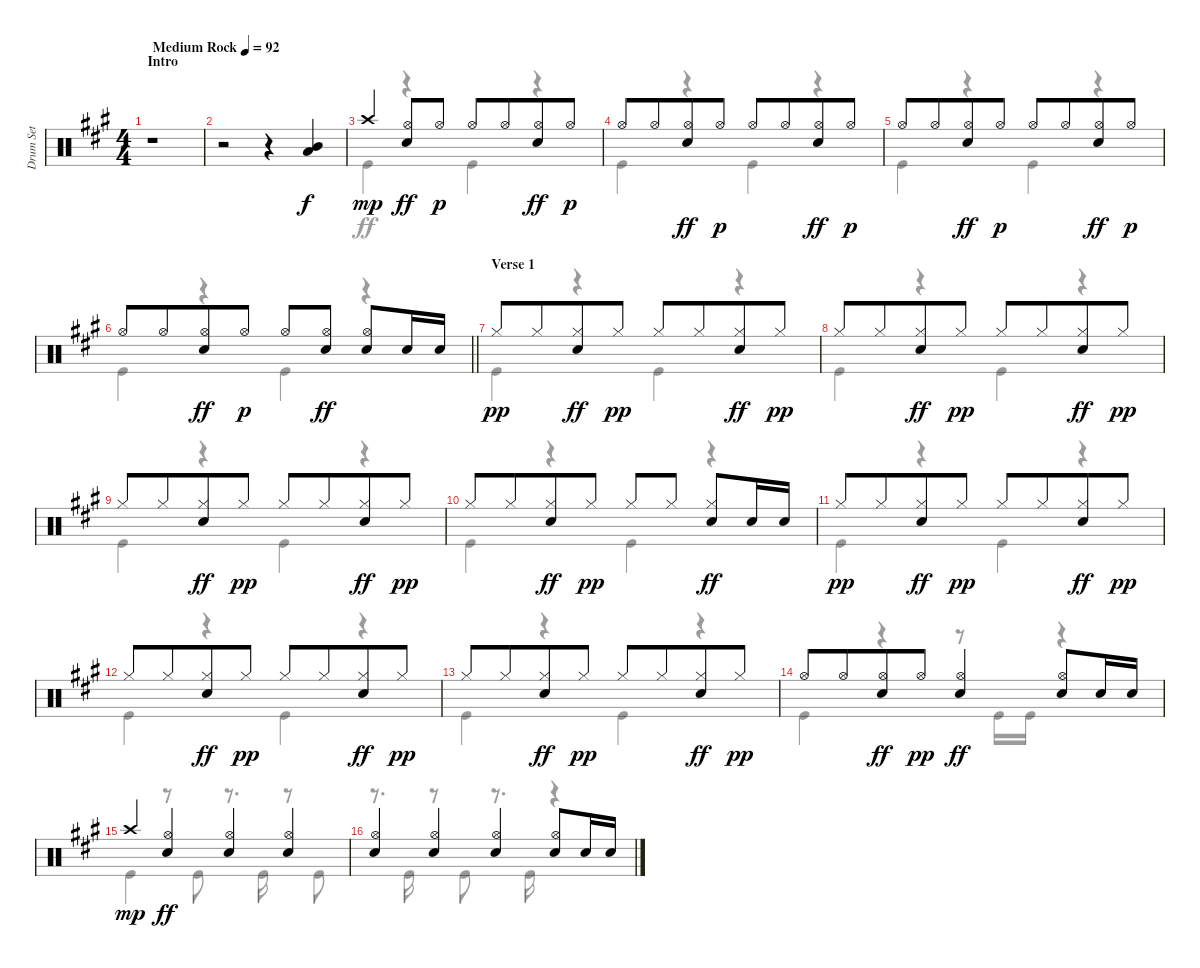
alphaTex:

\track ("Drum Set" "Drum Set") {instrument percussion}
\staff {score}
\articulation defaults
\voice
\ts (4 4)
\section ("" "Intro")
\tempo (92 "Medium Rock")
\clef neutral
\ks f#minor
r.1{dy f} |
r.2 r.4 ("Mid Tom (hit)" "Low Tom (hit)").4 |
"Crash high (hit)".4{dy mp} ("Hi-Hat (open)" "Electric Snare (hit)").8{dy ff} "Hi-Hat (open)".8{dy p} "Hi-Hat (open)".8 "Hi-Hat (open)".8{beam merge} ("Hi-Hat (open)" "Electric Snare (hit)").8{dy ff} "Hi-Hat (open)".8{dy p} |
"Hi-Hat (open)".8 "Hi-Hat (open)".8{beam merge} ("Hi-Hat (open)" "Electric Snare (hit)").8{dy ff} "Hi-Hat (open)".8{dy p} "Hi-Hat (open)".8 "Hi-Hat (open)".8{beam merge} ("Hi-Hat (open)" "Electric Snare (hit)").8{dy ff} "Hi-Hat (open)".8{dy p} |
"Hi-Hat (open)".8 "Hi-Hat (open)".8{beam merge} ("Hi-Hat (open)" "Electric Snare (hit)").8{dy ff} "Hi-Hat (open)".8{dy p} "Hi-Hat (open)".8 "Hi-Hat (open)".8{beam merge} ("Hi-Hat (open)" "Electric Snare (hit)").8{dy ff} "Hi-Hat (open)".8{dy p} |
\barLineRight lightlight "Hi-Hat (open)".8 "Hi-Hat (open)".8{beam merge}
("Hi-Hat (open)" "Electric Snare (hit)").8{dy ff} "Hi-Hat (open)".8{dy p} "Hi-Hat (open)".8 ("Hi-Hat (open)" "Electric Snare (hit)").8{dy ff} ("Hi-Hat (open)" "Electric Snare (hit)").8 "Electric Snare (hit)".16 "Electric Snare (hit)".16 |
\section ("" "Verse 1")
"Hi-Hat (closed)".8{dy pp} "Hi-Hat (closed)".8{beam merge} ("Hi-Hat (closed)" "Electric Snare (hit)").8{dy ff} "Hi-Hat (closed)".8{dy pp} "Hi-Hat (closed)".8 "Hi-Hat (closed)".8{beam merge} ("Hi-Hat (closed)" "Electric Snare (hit)").8{dy ff} "Hi-Hat (closed)".8{dy pp} |
"Hi-Hat (closed)".8 "Hi-Hat (closed)".8{beam merge} ("Hi-Hat (closed)" "Electric Snare (hit)").8{dy ff} "Hi-Hat (closed)".8{dy pp} "Hi-Hat (closed)".8 "Hi-Hat (closed)".8{beam merge} ("Hi-Hat (closed)" "Electric Snare (hit)").8{dy ff} "Hi-Hat (closed)".8{dy pp} |
"Hi-Hat (closed)".8 "Hi-Hat (closed)".8{beam merge} ("Hi-Hat (closed)" "Electric Snare (hit)").8{dy ff} "Hi-Hat (closed)".8{dy pp} "Hi-Hat (closed)".8 "Hi-Hat (closed)".8{beam merge} ("Hi-Hat (closed)" "Electric Snare (hit)").8{dy ff} "Hi-Hat (closed)".8{dy pp} |
"Hi-Hat (closed)".8 "Hi-Hat (closed)".8{beam merge} ("Hi-Hat (closed)" "Electric Snare (hit)").8{dy ff} "Hi-Hat (closed)".8{dy pp} "Hi-Hat (closed)".8 "Hi-Hat (closed)".8{beam split} ("Hi-Hat (closed)" "Electric Snare (hit)").8{dy ff} "Electric Snare (hit)".16 "Electric Snare (hit)".16 |
"Hi-Hat (closed)".8{dy pp} "Hi-Hat (closed)".8{beam merge} ("Hi-Hat (closed)" "Electric Snare (hit)").8{dy ff} "Hi-Hat (closed)".8{dy pp} "Hi-Hat (closed)".8 "Hi-Hat (closed)".8{beam merge} ("Hi-Hat (closed)" "Electric Snare (hit)").8{dy ff} "Hi-Hat (closed)".8{dy pp} |
"Hi-Hat (closed)".8 "Hi-Hat (closed)".8{beam merge} ("Hi-Hat (closed)" "Electric Snare (hit)").8{dy ff} "Hi-Hat (closed)".8{dy pp} "Hi-Hat (closed)".8 "Hi-Hat (closed)".8{beam merge} ("Hi-Hat (closed)" "Electric Snare (hit)").8{dy ff} "Hi-Hat (closed)".8{dy pp} |
"Hi-Hat (closed)".8 "Hi-Hat (closed)".8{beam merge} ("Hi-Hat (closed)" "Electric Snare (hit)").8{dy ff} "Hi-Hat (closed)".8{dy pp} "Hi-Hat (closed)".8 "Hi-Hat (closed)".8{beam merge} ("Hi-Hat (closed)" "Electric Snare (hit)").8{dy ff} "Hi-Hat (closed)".8{dy pp} |
"Hi-Hat (open)".8 "Hi-Hat (open)".8{beam merge} ("Hi-Hat (open)" "Electric Snare (hit)").8{dy ff} "Hi-Hat (open)".8{dy pp} ("Hi-Hat (open)" "Electric Snare (hit)").4{dy ff} ("Hi-Hat (open)" "Electric Snare (hit)").8 "Electric Snare (hit)".16 "Electric Snare (hit)".16 |
"Crash high (hit)".4{dy mp} ("Hi-Hat (open)" "Electric Snare (hit)").4{dy ff} ("Hi-Hat (open)" "Electric Snare (hit)").4 ("Hi-Hat (open)" "Electric Snare (hit)").4 |
("Hi-Hat (open)" "Electric Snare (hit)").4 ("Hi-Hat (open)" "Electric Snare (hit)").4 ("Hi-Hat (open)" "Electric Snare (hit)").4 ("Hi-Hat (open)" "Electric Snare (hit)").8 "Electric Snare (hit)".16 "Electric Snare (hit)".16
\voice
\clef neutral
\ottava regular
\simile none
\ks f#minor
|
|
"Kick (hit)".4 r.4 "Kick (hit)".4 r.4 |
"Kick (hit)".4 r.4 "Kick (hit)".4 r.4 |
"Kick (hit)".4 r.4 "Kick (hit)".4 r.4 |
\barLineRight lightlight "Kick (hit)".4
r.4 "Kick (hit)".4 r.4 |
"Kick (hit)".4 r.4 "Kick (hit)".4 r.4 |
"Kick (hit)".4 r.4 "Kick (hit)".4 r.4 |
"Kick (hit)".4 r.4 "Kick (hit)".4 r.4 |
"Kick (hit)".4 r.4 "Kick (hit)".4 r.4 |
"Kick (hit)".4 r.4 "Kick (hit)".4 r.4 |
"Kick (hit)".4 r.4 "Kick (hit)".4 r.4 |
"Kick (hit)".4 r.4 "Kick (hit)".4 r.4 |
"Kick (hit)".4 r.4 r.8 "Kick (hit)".16 "Kick (hit)".16 r.4 |
"Kick (hit)".4 r.8 "Kick (hit)".8 r.8{d} "Kick (hit)".16 r.8 "Kick (hit)".8 |
r.8{d} "Kick (hit)".16 r.8 "Kick (hit)".8 r.8{d} "Kick (hit)".16 r.4
